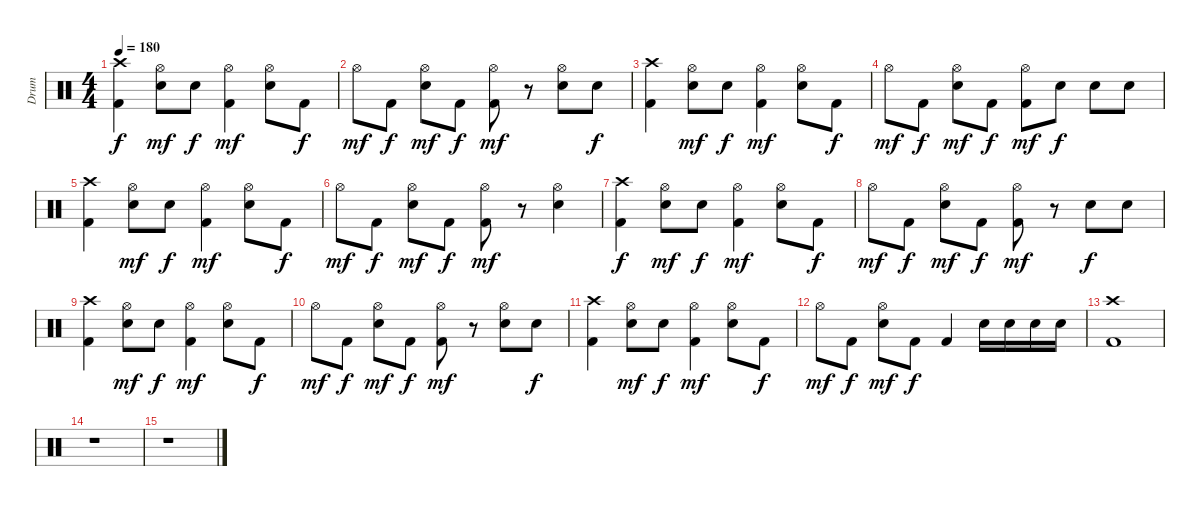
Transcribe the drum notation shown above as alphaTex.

\track ("Drum" "Drum") {instrument percussion}
\staff {score}
\articulation defaults
\ts (4 4)
\tempo 180
\clef neutral
\ks c
("Crash high (hit)" "Kick (hit) 2").4{dy f volume 16} ("Hi-Hat (open)" "Electric Snare (hit)").8{dy mf} "Electric Snare (hit)".8{dy f} ("Hi-Hat (open)" "Kick (hit) 2").4{dy mf} ("Hi-Hat (open)" "Electric Snare (hit)").8 "Kick (hit) 2".8{dy f} |
"Hi-Hat (open)".8{dy mf} "Kick (hit) 2".8{dy f} ("Hi-Hat (open)" "Electric Snare (hit)").8{dy mf} "Kick (hit) 2".8{dy f} ("Hi-Hat (open)" "Kick (hit) 2").8{dy mf} r.8 ("Hi-Hat (open)" "Electric Snare (hit)").8 "Electric Snare (hit)".8{dy f} |
("Crash high (hit)" "Kick (hit) 2").4{volume 16} ("Hi-Hat (open)" "Electric Snare (hit)").8{dy mf} "Electric Snare (hit)".8{dy f} ("Hi-Hat (open)" "Kick (hit) 2").4{dy mf} ("Hi-Hat (open)" "Electric Snare (hit)").8 "Kick (hit) 2".8{dy f} |
"Hi-Hat (open)".8{dy mf} "Kick (hit) 2".8{dy f} ("Hi-Hat (open)" "Electric Snare (hit)").8{dy mf} "Kick (hit) 2".8{dy f} ("Hi-Hat (open)" "Kick (hit) 2").8{dy mf} "Electric Snare (hit)".8{dy f} "Electric Snare (hit)".8 "Electric Snare (hit)".8 |
("Crash high (hit)" "Kick (hit) 2").4{volume 16} ("Hi-Hat (open)" "Electric Snare (hit)").8{dy mf} "Electric Snare (hit)".8{dy f} ("Hi-Hat (open)" "Kick (hit) 2").4{dy mf} ("Hi-Hat (open)" "Electric Snare (hit)").8 "Kick (hit) 2".8{dy f} |
"Hi-Hat (open)".8{dy mf} "Kick (hit) 2".8{dy f} ("Hi-Hat (open)" "Electric Snare (hit)").8{dy mf} "Kick (hit) 2".8{dy f} ("Hi-Hat (open)" "Kick (hit) 2").8{dy mf} r.8 ("Hi-Hat (open)" "Electric Snare (hit)").4 |
("Crash high (hit)" "Kick (hit) 2").4{dy f volume 16} ("Hi-Hat (open)" "Electric Snare (hit)").8{dy mf} "Electric Snare (hit)".8{dy f} ("Hi-Hat (open)" "Kick (hit) 2").4{dy mf} ("Hi-Hat (open)" "Electric Snare (hit)").8 "Kick (hit) 2".8{dy f} |
"Hi-Hat (open)".8{dy mf} "Kick (hit) 2".8{dy f} ("Hi-Hat (open)" "Electric Snare (hit)").8{dy mf} "Kick (hit) 2".8{dy f} ("Hi-Hat (open)" "Kick (hit) 2").8{dy mf} r.8 "Electric Snare (hit)".8{dy f} "Electric Snare (hit)".8 |
("Crash high (hit)" "Kick (hit) 2").4{volume 16} ("Hi-Hat (open)" "Electric Snare (hit)").8{dy mf} "Electric Snare (hit)".8{dy f} ("Hi-Hat (open)" "Kick (hit) 2").4{dy mf} ("Hi-Hat (open)" "Electric Snare (hit)").8 "Kick (hit) 2".8{dy f} |
"Hi-Hat (open)".8{dy mf} "Kick (hit) 2".8{dy f} ("Hi-Hat (open)" "Electric Snare (hit)").8{dy mf} "Kick (hit) 2".8{dy f} ("Hi-Hat (open)" "Kick (hit) 2").8{dy mf} r.8 ("Hi-Hat (open)" "Electric Snare (hit)").8 "Electric Snare (hit)".8{dy f} |
("Crash high (hit)" "Kick (hit) 2").4{volume 16} ("Hi-Hat (open)" "Electric Snare (hit)").8{dy mf} "Electric Snare (hit)".8{dy f} ("Hi-Hat (open)" "Kick (hit) 2").4{dy mf} ("Hi-Hat (open)" "Electric Snare (hit)").8 "Kick (hit) 2".8{dy f} |
"Hi-Hat (open)".8{dy mf} "Kick (hit) 2".8{dy f} ("Hi-Hat (open)" "Electric Snare (hit)").8{dy mf} "Kick (hit) 2".8{dy f} "Kick (hit) 2".4 "Electric Snare (hit)".16 "Electric Snare (hit)".16 "Electric Snare (hit)".16 "Electric Snare (hit)".16 |
("Crash high (hit)" "Kick (hit) 2").1 |
r.1 |
r.1
